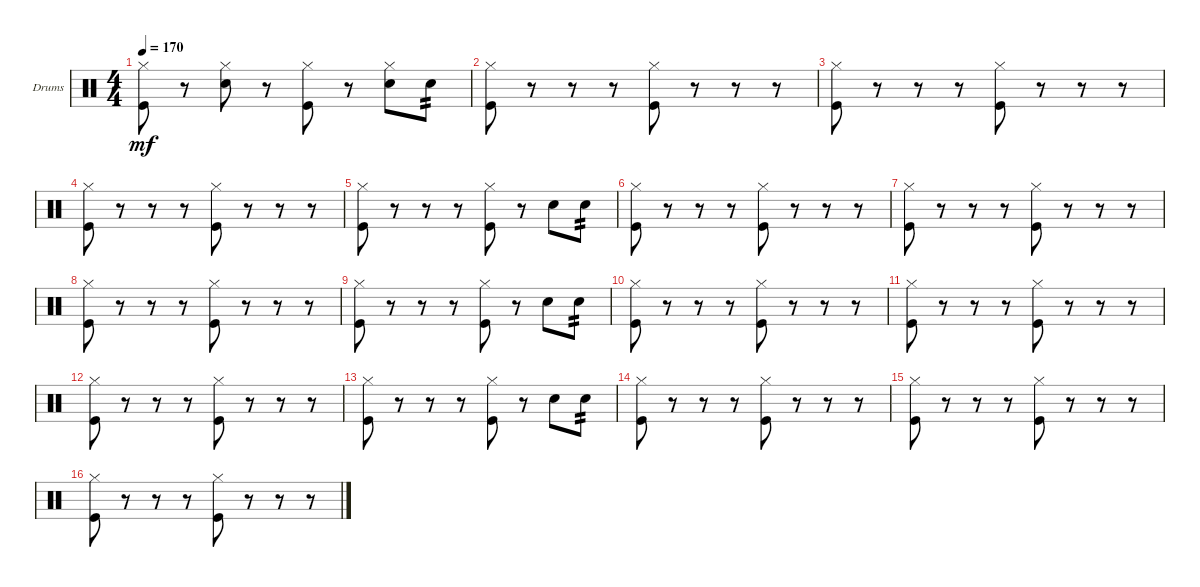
\defaultSystemsLayout 4
\bracketExtendMode groupsimilarinstruments
\firstSystemTrackNameOrientation horizontal
\otherSystemsTrackNameOrientation horizontal
\track ("Drumkit" "Drums") {instrument percussion}
\staff {score}
\articulation defaults
\ts (4 4)
\tempo 170
\clef neutral
\ks c
("Kick (hit)" "Hi-Hat (closed)").8{dy mf} r.8 ("Snare (hit) 2" "Hi-Hat (closed)").8 r.8 ("Kick (hit)" "Hi-Hat (closed)").8 r.8 ("Snare (hit) 2" "Hi-Hat (closed)").8 "Snare (hit) 2".8{tp 2} |
("Kick (hit)" "Hi-Hat (closed)").8 r.8 r.8 r.8 ("Kick (hit)" "Hi-Hat (closed)").8 r.8 r.8 r.8 |
("Kick (hit)" "Hi-Hat (closed)").8 r.8 r.8 r.8 ("Kick (hit)" "Hi-Hat (closed)").8 r.8 r.8 r.8 |
("Kick (hit)" "Hi-Hat (closed)").8 r.8 r.8 r.8 ("Kick (hit)" "Hi-Hat (closed)").8 r.8 r.8 r.8 |
("Kick (hit)" "Hi-Hat (closed)").8 r.8 r.8 r.8 ("Kick (hit)" "Hi-Hat (closed)").8 r.8 "Snare (hit) 2".8 "Snare (hit) 2".8{tp 2} |
("Kick (hit)" "Hi-Hat (closed)").8 r.8 r.8 r.8 ("Kick (hit)" "Hi-Hat (closed)").8 r.8 r.8 r.8 |
("Kick (hit)" "Hi-Hat (closed)").8 r.8 r.8 r.8 ("Kick (hit)" "Hi-Hat (closed)").8 r.8 r.8 r.8 |
("Kick (hit)" "Hi-Hat (closed)").8 r.8 r.8 r.8 ("Kick (hit)" "Hi-Hat (closed)").8 r.8 r.8 r.8 |
("Kick (hit)" "Hi-Hat (closed)").8 r.8 r.8 r.8 ("Kick (hit)" "Hi-Hat (closed)").8 r.8 "Snare (hit) 2".8 "Snare (hit) 2".8{tp 2} |
("Kick (hit)" "Hi-Hat (closed)").8 r.8 r.8 r.8 ("Kick (hit)" "Hi-Hat (closed)").8 r.8 r.8 r.8 |
("Kick (hit)" "Hi-Hat (closed)").8 r.8 r.8 r.8 ("Kick (hit)" "Hi-Hat (closed)").8 r.8 r.8 r.8 |
("Kick (hit)" "Hi-Hat (closed)").8 r.8 r.8 r.8 ("Kick (hit)" "Hi-Hat (closed)").8 r.8 r.8 r.8 |
("Kick (hit)" "Hi-Hat (closed)").8 r.8 r.8 r.8 ("Kick (hit)" "Hi-Hat (closed)").8 r.8 "Snare (hit) 2".8 "Snare (hit) 2".8{tp 2} |
("Kick (hit)" "Hi-Hat (closed)").8 r.8 r.8 r.8 ("Kick (hit)" "Hi-Hat (closed)").8 r.8 r.8 r.8 |
("Kick (hit)" "Hi-Hat (closed)").8 r.8 r.8 r.8 ("Kick (hit)" "Hi-Hat (closed)").8 r.8 r.8 r.8 |
("Kick (hit)" "Hi-Hat (closed)").8 r.8 r.8 r.8 ("Kick (hit)" "Hi-Hat (closed)").8 r.8 r.8 r.8
